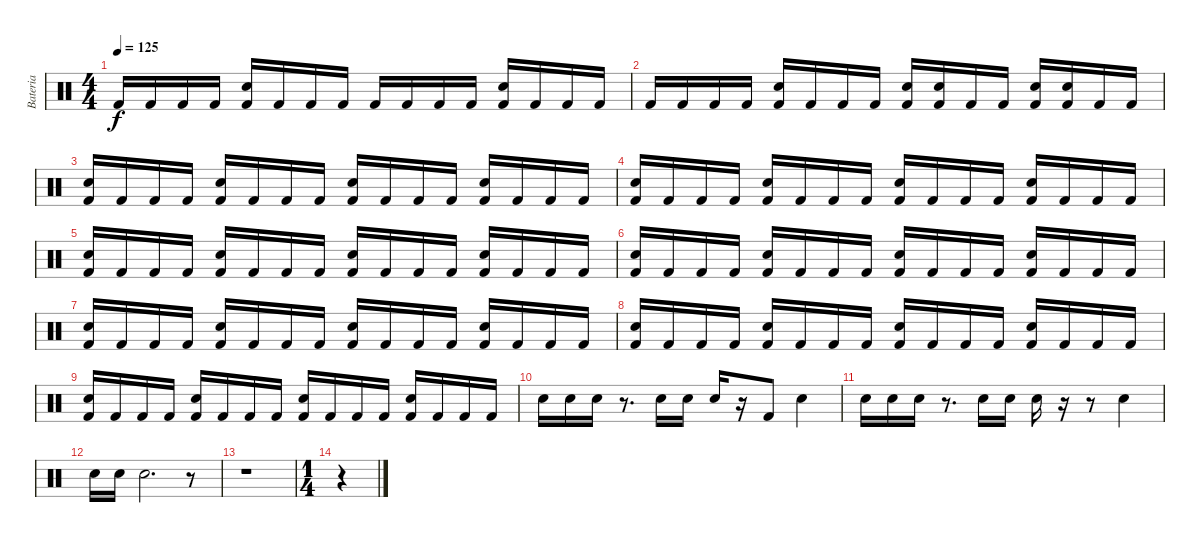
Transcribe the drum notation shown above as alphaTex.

\track ("Bateria" "Bateria") {instrument percussion}
\staff {score}
\articulation defaults
\ts (4 4)
\tempo 125
\clef neutral
\ks c "Kick (hit) 2".16{dy f} "Kick (hit) 2".16 "Kick (hit) 2".16 "Kick (hit) 2".16
("Kick (hit) 2" "Electric Snare (hit)").16 "Kick (hit) 2".16 "Kick (hit) 2".16 "Kick (hit) 2".16 "Kick (hit) 2".16 "Kick (hit) 2".16 "Kick (hit) 2".16 "Kick (hit) 2".16 ("Kick (hit) 2" "Electric Snare (hit)").16 "Kick (hit) 2".16 "Kick (hit) 2".16 "Kick (hit) 2".16 |
"Kick (hit) 2".16 "Kick (hit) 2".16 "Kick (hit) 2".16 "Kick (hit) 2".16 ("Kick (hit) 2" "Electric Snare (hit)").16 "Kick (hit) 2".16 "Kick (hit) 2".16 "Kick (hit) 2".16 ("Kick (hit) 2" "Electric Snare (hit)").16 ("Kick (hit) 2" "Electric Snare (hit)").16 "Kick (hit) 2".16 "Kick (hit) 2".16 ("Kick (hit) 2" "Electric Snare (hit)").16 ("Kick (hit) 2" "Electric Snare (hit)").16 "Kick (hit) 2".16 "Kick (hit) 2".16 |
("Kick (hit) 2" "Electric Snare (hit)").16 "Kick (hit) 2".16 "Kick (hit) 2".16 "Kick (hit) 2".16 ("Kick (hit) 2" "Electric Snare (hit)").16 "Kick (hit) 2".16 "Kick (hit) 2".16 "Kick (hit) 2".16 ("Kick (hit) 2" "Electric Snare (hit)").16 "Kick (hit) 2".16 "Kick (hit) 2".16 "Kick (hit) 2".16 ("Kick (hit) 2" "Electric Snare (hit)").16 "Kick (hit) 2".16 "Kick (hit) 2".16 "Kick (hit) 2".16 |
("Kick (hit) 2" "Electric Snare (hit)").16 "Kick (hit) 2".16 "Kick (hit) 2".16 "Kick (hit) 2".16 ("Kick (hit) 2" "Electric Snare (hit)").16 "Kick (hit) 2".16 "Kick (hit) 2".16 "Kick (hit) 2".16 ("Kick (hit) 2" "Electric Snare (hit)").16 "Kick (hit) 2".16 "Kick (hit) 2".16 "Kick (hit) 2".16 ("Kick (hit) 2" "Electric Snare (hit)").16 "Kick (hit) 2".16 "Kick (hit) 2".16 "Kick (hit) 2".16 |
("Kick (hit) 2" "Electric Snare (hit)").16 "Kick (hit) 2".16 "Kick (hit) 2".16 "Kick (hit) 2".16 ("Kick (hit) 2" "Electric Snare (hit)").16 "Kick (hit) 2".16 "Kick (hit) 2".16 "Kick (hit) 2".16 ("Kick (hit) 2" "Electric Snare (hit)").16 "Kick (hit) 2".16 "Kick (hit) 2".16 "Kick (hit) 2".16 ("Kick (hit) 2" "Electric Snare (hit)").16 "Kick (hit) 2".16 "Kick (hit) 2".16 "Kick (hit) 2".16 |
("Kick (hit) 2" "Electric Snare (hit)").16 "Kick (hit) 2".16 "Kick (hit) 2".16 "Kick (hit) 2".16 ("Kick (hit) 2" "Electric Snare (hit)").16 "Kick (hit) 2".16 "Kick (hit) 2".16 "Kick (hit) 2".16 ("Kick (hit) 2" "Electric Snare (hit)").16 "Kick (hit) 2".16 "Kick (hit) 2".16 "Kick (hit) 2".16 ("Kick (hit) 2" "Electric Snare (hit)").16 "Kick (hit) 2".16 "Kick (hit) 2".16 "Kick (hit) 2".16 |
("Kick (hit) 2" "Electric Snare (hit)").16 "Kick (hit) 2".16 "Kick (hit) 2".16 "Kick (hit) 2".16 ("Kick (hit) 2" "Electric Snare (hit)").16 "Kick (hit) 2".16 "Kick (hit) 2".16 "Kick (hit) 2".16 ("Kick (hit) 2" "Electric Snare (hit)").16 "Kick (hit) 2".16 "Kick (hit) 2".16 "Kick (hit) 2".16 ("Kick (hit) 2" "Electric Snare (hit)").16 "Kick (hit) 2".16 "Kick (hit) 2".16 "Kick (hit) 2".16 |
("Kick (hit) 2" "Electric Snare (hit)").16 "Kick (hit) 2".16 "Kick (hit) 2".16 "Kick (hit) 2".16 ("Kick (hit) 2" "Electric Snare (hit)").16 "Kick (hit) 2".16 "Kick (hit) 2".16 "Kick (hit) 2".16 ("Kick (hit) 2" "Electric Snare (hit)").16 "Kick (hit) 2".16 "Kick (hit) 2".16 "Kick (hit) 2".16 ("Kick (hit) 2" "Electric Snare (hit)").16 "Kick (hit) 2".16 "Kick (hit) 2".16 "Kick (hit) 2".16 |
("Kick (hit) 2" "Electric Snare (hit)").16 "Kick (hit) 2".16 "Kick (hit) 2".16 "Kick (hit) 2".16 ("Kick (hit) 2" "Electric Snare (hit)").16 "Kick (hit) 2".16 "Kick (hit) 2".16 "Kick (hit) 2".16 ("Kick (hit) 2" "Electric Snare (hit)").16 "Kick (hit) 2".16 "Kick (hit) 2".16 "Kick (hit) 2".16 ("Kick (hit) 2" "Electric Snare (hit)").16 "Kick (hit) 2".16 "Kick (hit) 2".16 "Kick (hit) 2".16 |
"Electric Snare (hit)".16 "Electric Snare (hit)".16 "Electric Snare (hit)".16 r.8{d} "Electric Snare (hit)".16 "Electric Snare (hit)".16 "Electric Snare (hit)".16 r.16 "Kick (hit) 2".8 "Electric Snare (hit)".4 |
"Electric Snare (hit)".16 "Electric Snare (hit)".16 "Electric Snare (hit)".16 r.8{d} "Electric Snare (hit)".16 "Electric Snare (hit)".16 "Electric Snare (hit)".16 r.16 r.8 "Electric Snare (hit)".4 |
"Electric Snare (hit)".16 "Electric Snare (hit)".16 "Electric Snare (hit)".2{d} r.8 |
r.1 |
\ts (1 4)
r.4
